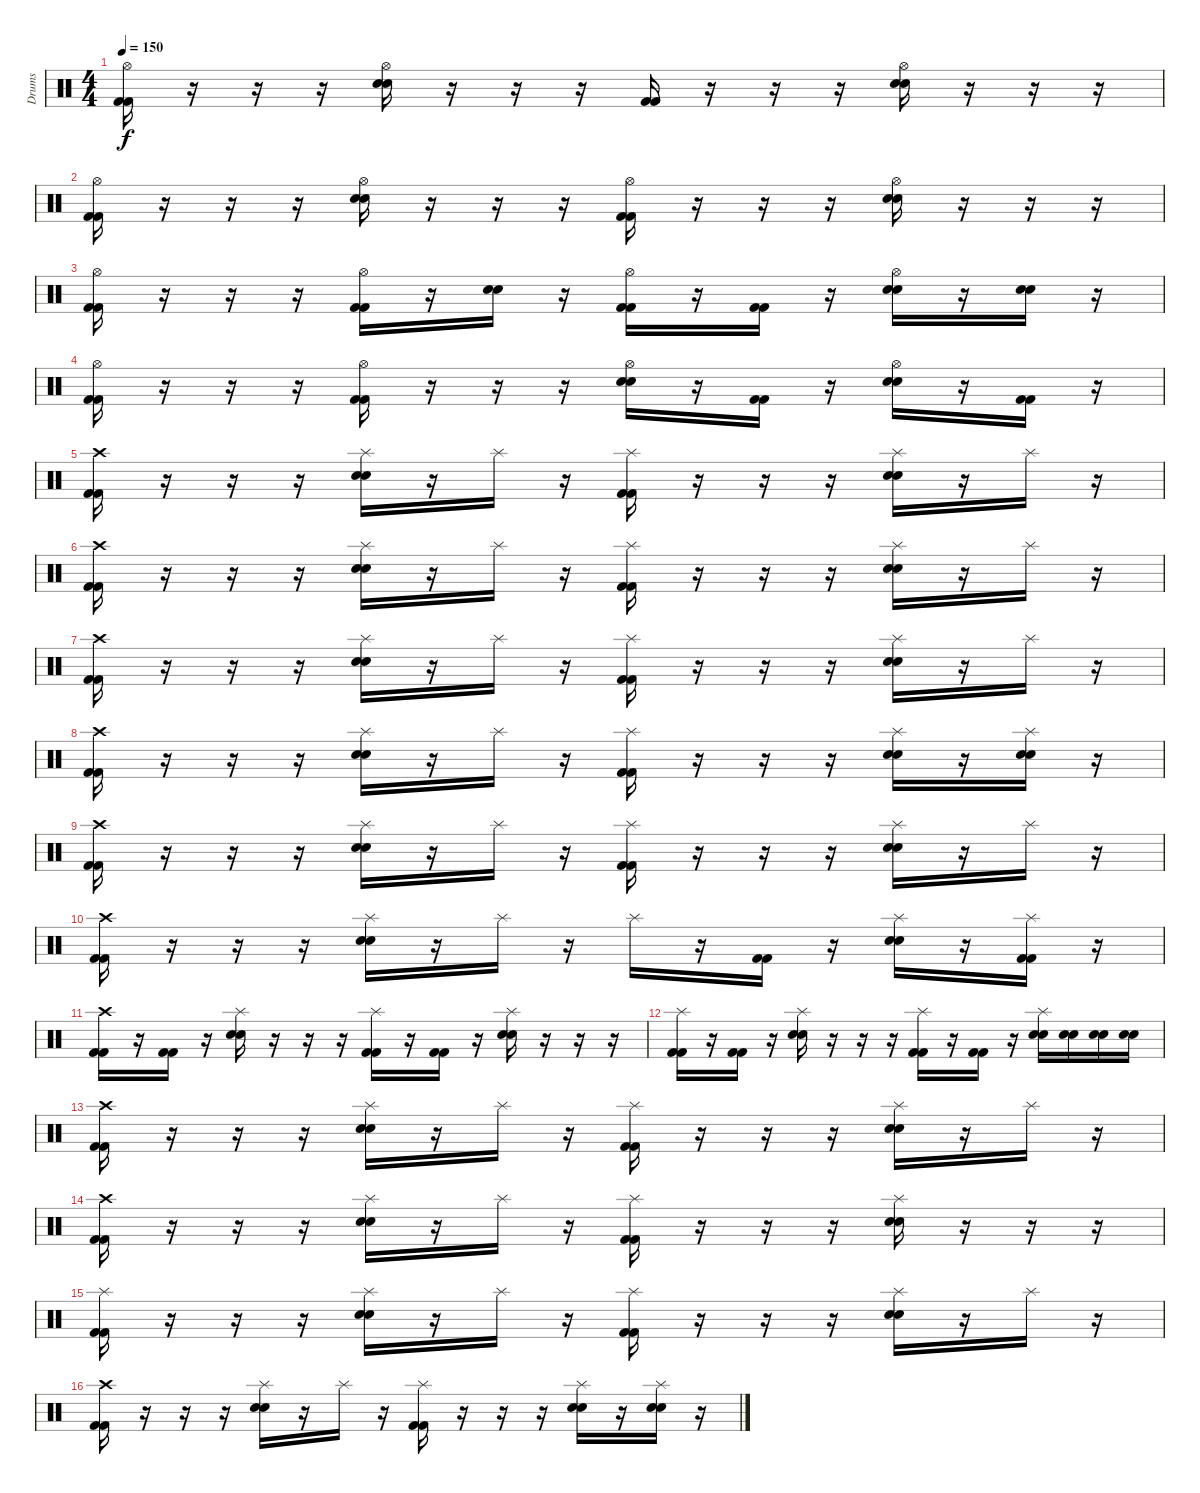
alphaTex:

\track ("Drums" "Drums") {instrument percussion}
\staff {score}
\articulation defaults
\ts (4 4)
\tempo 150
\clef neutral
\ks c
("Hi-Hat (open)" "Kick (hit) 2" "Kick (hit) 2").16{dy f} r.16 r.16 r.16 ("Hi-Hat (open)" "Electric Snare (hit)" "Electric Snare (hit)").16 r.16 r.16 r.16 ("Kick (hit) 2" "Kick (hit) 2").16 r.16 r.16 r.16 ("Hi-Hat (open)" "Electric Snare (hit)" "Electric Snare (hit)").16 r.16 r.16 r.16 |
("Hi-Hat (open)" "Kick (hit) 2" "Kick (hit) 2").16 r.16 r.16 r.16 ("Hi-Hat (open)" "Electric Snare (hit)" "Electric Snare (hit)").16 r.16 r.16 r.16 ("Hi-Hat (open)" "Kick (hit) 2" "Kick (hit) 2").16 r.16 r.16 r.16 ("Hi-Hat (open)" "Electric Snare (hit)" "Electric Snare (hit)").16 r.16 r.16 r.16 |
("Hi-Hat (open)" "Kick (hit) 2" "Kick (hit) 2").16 r.16 r.16 r.16 ("Hi-Hat (open)" "Kick (hit) 2" "Kick (hit) 2").16 r.16 ("Electric Snare (hit)" "Electric Snare (hit)").16 r.16 ("Hi-Hat (open)" "Kick (hit) 2" "Kick (hit) 2").16 r.16 ("Kick (hit) 2" "Kick (hit) 2").16 r.16 ("Hi-Hat (open)" "Electric Snare (hit)" "Electric Snare (hit)").16 r.16 ("Electric Snare (hit)" "Electric Snare (hit)").16 r.16 |
("Hi-Hat (open)" "Kick (hit) 2" "Kick (hit) 2").16 r.16 r.16 r.16 ("Hi-Hat (open)" "Kick (hit) 2" "Kick (hit) 2").16 r.16 r.16 r.16 ("Hi-Hat (open)" "Electric Snare (hit)" "Electric Snare (hit)").16 r.16 ("Kick (hit) 2" "Kick (hit) 2").16 r.16 ("Hi-Hat (open)" "Electric Snare (hit)" "Electric Snare (hit)").16 r.16 ("Kick (hit) 2" "Kick (hit) 2").16 r.16 |
("Crash high (hit)" "Kick (hit) 2" "Kick (hit) 2").16 r.16 r.16 r.16 ("Splash (hit)" "Electric Snare (hit)" "Electric Snare (hit)").16 r.16 "Splash (hit)".16 r.16 ("Splash (hit)" "Kick (hit) 2" "Kick (hit) 2").16 r.16 r.16 r.16 ("Splash (hit)" "Electric Snare (hit)" "Electric Snare (hit)").16 r.16 "Splash (hit)".16 r.16 |
("Crash high (hit)" "Kick (hit) 2" "Kick (hit) 2").16 r.16 r.16 r.16 ("Splash (hit)" "Electric Snare (hit)" "Electric Snare (hit)").16 r.16 "Splash (hit)".16 r.16 ("Splash (hit)" "Kick (hit) 2" "Kick (hit) 2").16 r.16 r.16 r.16 ("Splash (hit)" "Electric Snare (hit)" "Electric Snare (hit)").16 r.16 "Splash (hit)".16 r.16 |
("Crash high (hit)" "Kick (hit) 2" "Kick (hit) 2").16 r.16 r.16 r.16 ("Splash (hit)" "Electric Snare (hit)" "Electric Snare (hit)").16 r.16 "Splash (hit)".16 r.16 ("Splash (hit)" "Kick (hit) 2" "Kick (hit) 2").16 r.16 r.16 r.16 ("Splash (hit)" "Electric Snare (hit)" "Electric Snare (hit)").16 r.16 "Splash (hit)".16 r.16 |
("Crash high (hit)" "Kick (hit) 2" "Kick (hit) 2").16 r.16 r.16 r.16 ("Splash (hit)" "Electric Snare (hit)" "Electric Snare (hit)").16 r.16 "Splash (hit)".16 r.16 ("Splash (hit)" "Kick (hit) 2" "Kick (hit) 2").16 r.16 r.16 r.16 ("Splash (hit)" "Electric Snare (hit)" "Electric Snare (hit)").16 r.16 ("Splash (hit)" "Electric Snare (hit)" "Electric Snare (hit)").16 r.16 |
("Crash high (hit)" "Kick (hit) 2" "Kick (hit) 2").16 r.16 r.16 r.16 ("Splash (hit)" "Electric Snare (hit)" "Electric Snare (hit)").16 r.16 "Splash (hit)".16 r.16 ("Splash (hit)" "Kick (hit) 2" "Kick (hit) 2").16 r.16 r.16 r.16 ("Splash (hit)" "Electric Snare (hit)" "Electric Snare (hit)").16 r.16 "Splash (hit)".16 r.16 |
("Crash high (hit)" "Kick (hit) 2" "Kick (hit) 2").16 r.16 r.16 r.16 ("Splash (hit)" "Electric Snare (hit)" "Electric Snare (hit)").16 r.16 "Splash (hit)".16 r.16 "Splash (hit)".16 r.16 ("Kick (hit) 2" "Kick (hit) 2").16 r.16 ("Splash (hit)" "Electric Snare (hit)" "Electric Snare (hit)").16 r.16 ("Splash (hit)" "Kick (hit) 2" "Kick (hit) 2").16 r.16 |
("Crash high (hit)" "Kick (hit) 2" "Kick (hit) 2").16 r.16 ("Kick (hit) 2" "Kick (hit) 2").16 r.16 ("Splash (hit)" "Electric Snare (hit)" "Electric Snare (hit)").16 r.16 r.16 r.16 ("Splash (hit)" "Kick (hit) 2" "Kick (hit) 2").16 r.16 ("Kick (hit) 2" "Kick (hit) 2").16 r.16 ("Splash (hit)" "Electric Snare (hit)" "Electric Snare (hit)").16 r.16 r.16 r.16 |
("Splash (hit)" "Kick (hit) 2" "Kick (hit) 2").16 r.16 ("Kick (hit) 2" "Kick (hit) 2").16 r.16 ("Splash (hit)" "Electric Snare (hit)" "Electric Snare (hit)").16 r.16 r.16 r.16 ("Splash (hit)" "Kick (hit) 2" "Kick (hit) 2").16 r.16 ("Kick (hit) 2" "Kick (hit) 2").16 r.16 ("Splash (hit)" "Electric Snare (hit)" "Electric Snare (hit)").16 ("Electric Snare (hit)" "Electric Snare (hit)").16 ("Electric Snare (hit)" "Electric Snare (hit)").16 ("Electric Snare (hit)" "Electric Snare (hit)").16 |
("Crash high (hit)" "Kick (hit) 2" "Kick (hit) 2").16 r.16 r.16 r.16 ("Splash (hit)" "Electric Snare (hit)" "Electric Snare (hit)").16 r.16 "Splash (hit)".16 r.16 ("Splash (hit)" "Kick (hit) 2" "Kick (hit) 2").16 r.16 r.16 r.16 ("Splash (hit)" "Electric Snare (hit)" "Electric Snare (hit)").16 r.16 "Splash (hit)".16 r.16 |
("Crash high (hit)" "Kick (hit) 2" "Kick (hit) 2").16 r.16 r.16 r.16 ("Splash (hit)" "Electric Snare (hit)" "Electric Snare (hit)").16 r.16 "Splash (hit)".16 r.16 ("Splash (hit)" "Kick (hit) 2" "Kick (hit) 2").16 r.16 r.16 r.16 ("Splash (hit)" "Electric Snare (hit)" "Electric Snare (hit)").16 r.16 r.16 r.16 |
("Splash (hit)" "Kick (hit) 2" "Kick (hit) 2").16 r.16 r.16 r.16 ("Splash (hit)" "Electric Snare (hit)" "Electric Snare (hit)").16 r.16 "Splash (hit)".16 r.16 ("Splash (hit)" "Kick (hit) 2" "Kick (hit) 2").16 r.16 r.16 r.16 ("Splash (hit)" "Electric Snare (hit)" "Electric Snare (hit)").16 r.16 "Splash (hit)".16 r.16 |
("Crash high (hit)" "Kick (hit) 2" "Kick (hit) 2").16 r.16 r.16 r.16 ("Splash (hit)" "Electric Snare (hit)" "Electric Snare (hit)").16 r.16 "Splash (hit)".16 r.16 ("Splash (hit)" "Kick (hit) 2" "Kick (hit) 2").16 r.16 r.16 r.16 ("Splash (hit)" "Electric Snare (hit)" "Electric Snare (hit)").16 r.16 ("Splash (hit)" "Electric Snare (hit)" "Electric Snare (hit)").16 r.16
